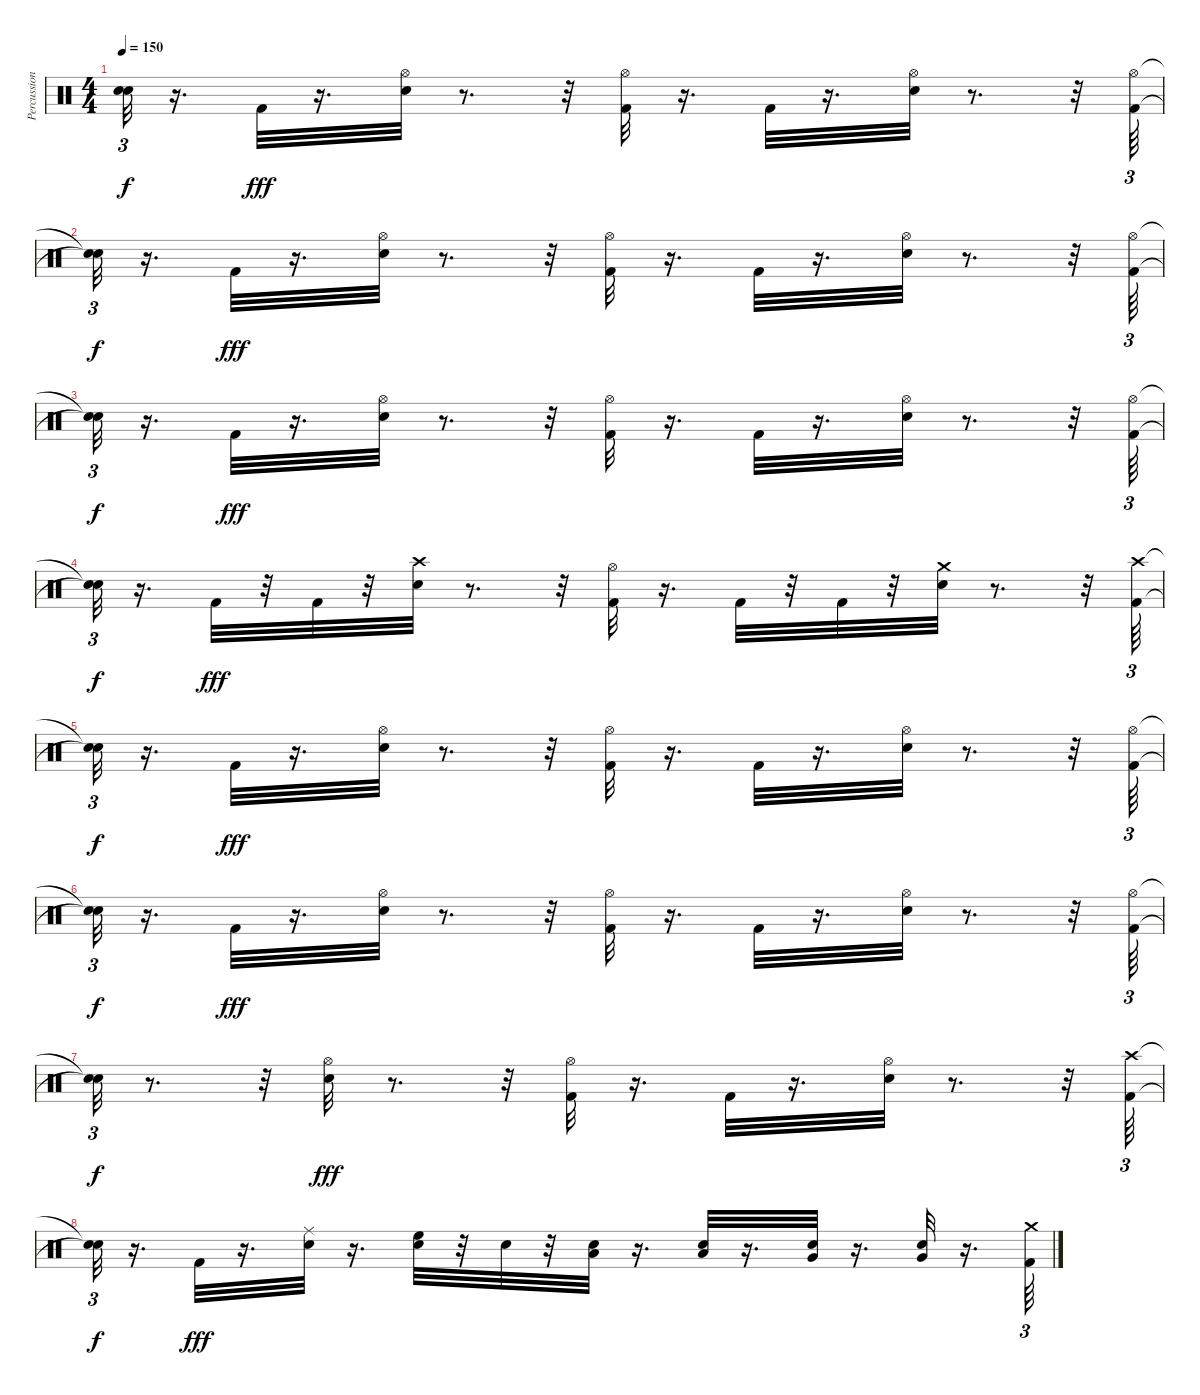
\track ("Percussion" "Percussion") {instrument percussion}
\staff {score}
\articulation defaults
\ts (4 4)
\tempo 150
\clef neutral
\ks c
("Snare (hit)"{t} "Snare (hit)"{t}).32{tu (3 2) dy f} r.16{d} "Kick (hit) 2".32{dy fff} r.16{d} ("Electric Snare (hit)" "Hi-Hat (open)").32 r.8{d} r.32 ("Hi-Hat (open)" "Kick (hit) 2").32 r.16{d} "Kick (hit) 2".32 r.16{d} ("Electric Snare (hit)" "Hi-Hat (open)").32 r.8{d} r.32 ("Hi-Hat (open)" "Kick (hit) 2").64{tu (3 2)} |
("Snare (hit)"{t} "Snare (hit)"{t}).32{tu (3 2) dy f} r.16{d} "Kick (hit) 2".32{dy fff} r.16{d} ("Electric Snare (hit)" "Hi-Hat (open)").32 r.8{d} r.32 ("Kick (hit) 2" "Hi-Hat (open)").32 r.16{d} "Kick (hit) 2".32 r.16{d} ("Electric Snare (hit)" "Hi-Hat (open)").32 r.8{d} r.32 ("Kick (hit) 2" "Hi-Hat (open)").64{tu (3 2)} |
("Snare (hit)"{t} "Snare (hit)"{t}).32{tu (3 2) dy f} r.16{d} "Kick (hit) 2".32{dy fff} r.16{d} ("Electric Snare (hit)" "Hi-Hat (open)").32 r.8{d} r.32 ("Hi-Hat (open)" "Kick (hit) 2").32 r.16{d} "Kick (hit) 2".32 r.16{d} ("Electric Snare (hit)" "Hi-Hat (open)").32 r.8{d} r.32 ("Hi-Hat (open)" "Kick (hit) 2").64{tu (3 2)} |
("Snare (hit)"{t} "Snare (hit)"{t}).32{tu (3 2) dy f} r.16{d} "Kick (hit) 2".32{dy fff} r.32 "Kick (hit) 2".32 r.32 ("Electric Snare (hit)" "Crash high (hit)").32 r.8{d} r.32 ("Kick (hit) 2" "Hi-Hat (open)").32 r.16{d} "Kick (hit) 2".32 r.32 "Kick (hit) 2".32 r.32 ("Electric Snare (hit)" "Crash medium (hit)").32 r.8{d} r.32 ("Kick (hit) 2" "Crash high (hit)").64{tu (3 2)} |
("Snare (hit)"{t} "Snare (hit)"{t}).32{tu (3 2) dy f} r.16{d} "Kick (hit) 2".32{dy fff} r.16{d} ("Electric Snare (hit)" "Hi-Hat (open)").32 r.8{d} r.32 ("Hi-Hat (open)" "Kick (hit) 2").32 r.16{d} "Kick (hit) 2".32 r.16{d} ("Electric Snare (hit)" "Hi-Hat (open)").32 r.8{d} r.32 ("Hi-Hat (open)" "Kick (hit) 2").64{tu (3 2)} |
("Snare (hit)"{t} "Snare (hit)"{t}).32{tu (3 2) dy f} r.16{d} "Kick (hit) 2".32{dy fff} r.16{d} ("Electric Snare (hit)" "Hi-Hat (open)").32 r.8{d} r.32 ("Kick (hit) 2" "Hi-Hat (open)").32 r.16{d} "Kick (hit) 2".32 r.16{d} ("Electric Snare (hit)" "Hi-Hat (open)").32 r.8{d} r.32 ("Hi-Hat (open)" "Kick (hit) 2").64{tu (3 2)} |
("Snare (hit)"{t} "Snare (hit)"{t}).32{tu (3 2) dy f} r.8{d} r.32 ("Hi-Hat (open)" "Electric Snare (hit)").32{dy fff} r.8{d} r.32 ("Hi-Hat (open)" "Kick (hit) 2").32 r.16{d} "Kick (hit) 2".32 r.16{d} ("Hi-Hat (open)" "Electric Snare (hit)").32 r.8{d} r.32 ("Crash high (hit)" "Kick (hit) 2").64{tu (3 2)} |
("Snare (hit)"{t} "Snare (hit)"{t}).32{tu (3 2) dy f} r.16{d} "Kick (hit) 2".32{dy fff} r.16{d} ("Electric Snare (hit)" "Ride (middle)").32 r.16{d} ("Electric Snare (hit)" "High Floor Tom (hit)").32 r.32 "Snare (hit) 2".32 r.32 ("Electric Snare (hit)" "Low Tom (hit)").32 r.16{d} ("Electric Snare (hit)" "Low Tom (hit)").32 r.16{d} ("Electric Snare (hit)" "Very Low Tom (hit)").32 r.16{d} ("Electric Snare (hit)" "Very Low Tom (hit)").32 r.16{d} ("Crash medium (hit)" "Kick (hit) 2").64{tu (3 2)}
